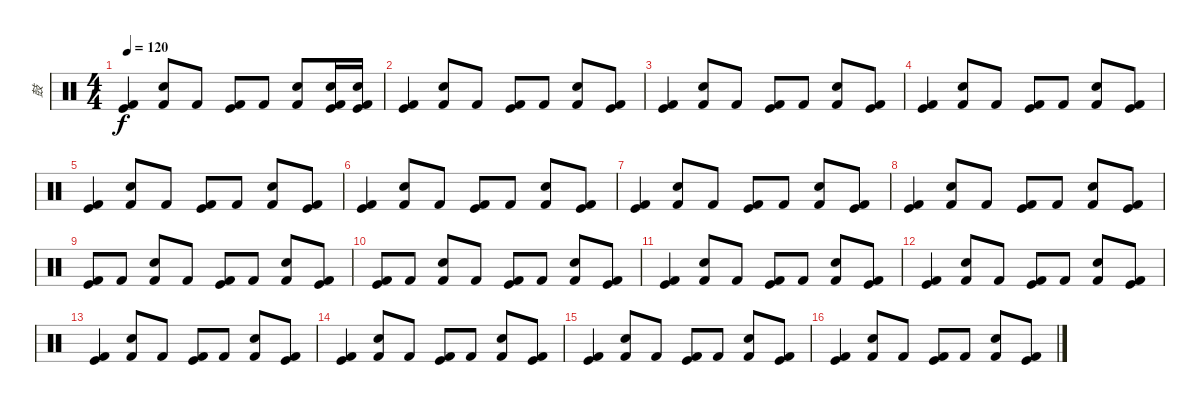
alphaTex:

\track ("鼓" "鼓") {instrument percussion}
\staff {score}
\articulation defaults
\ts (4 4)
\tempo 120
\clef neutral
\ks c
("Kick (hit) 2" "Kick (hit)").4{dy f} ("Kick (hit) 2" "Electric Snare (hit)").8 "Kick (hit) 2".8 ("Kick (hit) 2" "Kick (hit)").8 "Kick (hit) 2".8 ("Kick (hit) 2" "Electric Snare (hit)").8 ("Kick (hit) 2" "Kick (hit)" "Electric Snare (hit)").16 ("Kick (hit) 2" "Kick (hit)" "Electric Snare (hit)").16 |
("Kick (hit) 2" "Kick (hit)").4 ("Kick (hit) 2" "Electric Snare (hit)").8 "Kick (hit) 2".8 ("Kick (hit) 2" "Kick (hit)").8 "Kick (hit) 2".8 ("Kick (hit) 2" "Electric Snare (hit)").8 ("Kick (hit) 2" "Kick (hit)").8 |
("Kick (hit) 2" "Kick (hit)").4 ("Kick (hit) 2" "Electric Snare (hit)").8 "Kick (hit) 2".8 ("Kick (hit) 2" "Kick (hit)").8 "Kick (hit) 2".8 ("Kick (hit) 2" "Electric Snare (hit)").8 ("Kick (hit) 2" "Kick (hit)").8 |
("Kick (hit) 2" "Kick (hit)").4 ("Kick (hit) 2" "Electric Snare (hit)").8 "Kick (hit) 2".8 ("Kick (hit) 2" "Kick (hit)").8 "Kick (hit) 2".8 ("Kick (hit) 2" "Electric Snare (hit)").8 ("Kick (hit) 2" "Kick (hit)").8 |
("Kick (hit) 2" "Kick (hit)").4 ("Kick (hit) 2" "Electric Snare (hit)").8 "Kick (hit) 2".8 ("Kick (hit) 2" "Kick (hit)").8 "Kick (hit) 2".8 ("Kick (hit) 2" "Electric Snare (hit)").8 ("Kick (hit) 2" "Kick (hit)").8 |
("Kick (hit) 2" "Kick (hit)").4 ("Kick (hit) 2" "Electric Snare (hit)").8 "Kick (hit) 2".8 ("Kick (hit) 2" "Kick (hit)").8 "Kick (hit) 2".8 ("Kick (hit) 2" "Electric Snare (hit)").8 ("Kick (hit) 2" "Kick (hit)").8 |
("Kick (hit) 2" "Kick (hit)").4 ("Kick (hit) 2" "Electric Snare (hit)").8 "Kick (hit) 2".8 ("Kick (hit) 2" "Kick (hit)").8 "Kick (hit) 2".8 ("Kick (hit) 2" "Electric Snare (hit)").8 ("Kick (hit) 2" "Kick (hit)").8 |
("Kick (hit) 2" "Kick (hit)").4 ("Kick (hit) 2" "Electric Snare (hit)").8 "Kick (hit) 2".8 ("Kick (hit) 2" "Kick (hit)").8 "Kick (hit) 2".8 ("Kick (hit) 2" "Electric Snare (hit)").8 ("Kick (hit) 2" "Kick (hit)").8 |
("Kick (hit) 2" "Kick (hit)").8 "Kick (hit) 2".8 ("Kick (hit) 2" "Electric Snare (hit)").8 "Kick (hit) 2".8 ("Kick (hit) 2" "Kick (hit)").8 "Kick (hit) 2".8 ("Kick (hit) 2" "Electric Snare (hit)").8 ("Kick (hit) 2" "Kick (hit)").8 |
("Kick (hit) 2" "Kick (hit)").8 "Kick (hit) 2".8 ("Kick (hit) 2" "Electric Snare (hit)").8 "Kick (hit) 2".8 ("Kick (hit) 2" "Kick (hit)").8 "Kick (hit) 2".8 ("Kick (hit) 2" "Electric Snare (hit)").8 ("Kick (hit) 2" "Kick (hit)").8 |
("Kick (hit) 2" "Kick (hit)").4 ("Kick (hit) 2" "Electric Snare (hit)").8 "Kick (hit) 2".8 ("Kick (hit) 2" "Kick (hit)").8 "Kick (hit) 2".8 ("Kick (hit) 2" "Electric Snare (hit)").8 ("Kick (hit) 2" "Kick (hit)").8 |
("Kick (hit) 2" "Kick (hit)").4 ("Kick (hit) 2" "Electric Snare (hit)").8 "Kick (hit) 2".8 ("Kick (hit) 2" "Kick (hit)").8 "Kick (hit) 2".8 ("Kick (hit) 2" "Electric Snare (hit)").8 ("Kick (hit) 2" "Kick (hit)").8 |
("Kick (hit) 2" "Kick (hit)").4 ("Kick (hit) 2" "Electric Snare (hit)").8 "Kick (hit) 2".8 ("Kick (hit) 2" "Kick (hit)").8 "Kick (hit) 2".8 ("Kick (hit) 2" "Electric Snare (hit)").8 ("Kick (hit) 2" "Kick (hit)").8 |
("Kick (hit) 2" "Kick (hit)").4 ("Kick (hit) 2" "Electric Snare (hit)").8 "Kick (hit) 2".8 ("Kick (hit) 2" "Kick (hit)").8 "Kick (hit) 2".8 ("Kick (hit) 2" "Electric Snare (hit)").8 ("Kick (hit) 2" "Kick (hit)").8 |
("Kick (hit) 2" "Kick (hit)").4 ("Kick (hit) 2" "Electric Snare (hit)").8 "Kick (hit) 2".8 ("Kick (hit) 2" "Kick (hit)").8 "Kick (hit) 2".8 ("Kick (hit) 2" "Electric Snare (hit)").8 ("Kick (hit) 2" "Kick (hit)").8 |
("Kick (hit) 2" "Kick (hit)").4 ("Kick (hit) 2" "Electric Snare (hit)").8 "Kick (hit) 2".8 ("Kick (hit) 2" "Kick (hit)").8 "Kick (hit) 2".8 ("Kick (hit) 2" "Electric Snare (hit)").8 ("Kick (hit) 2" "Kick (hit)").8
